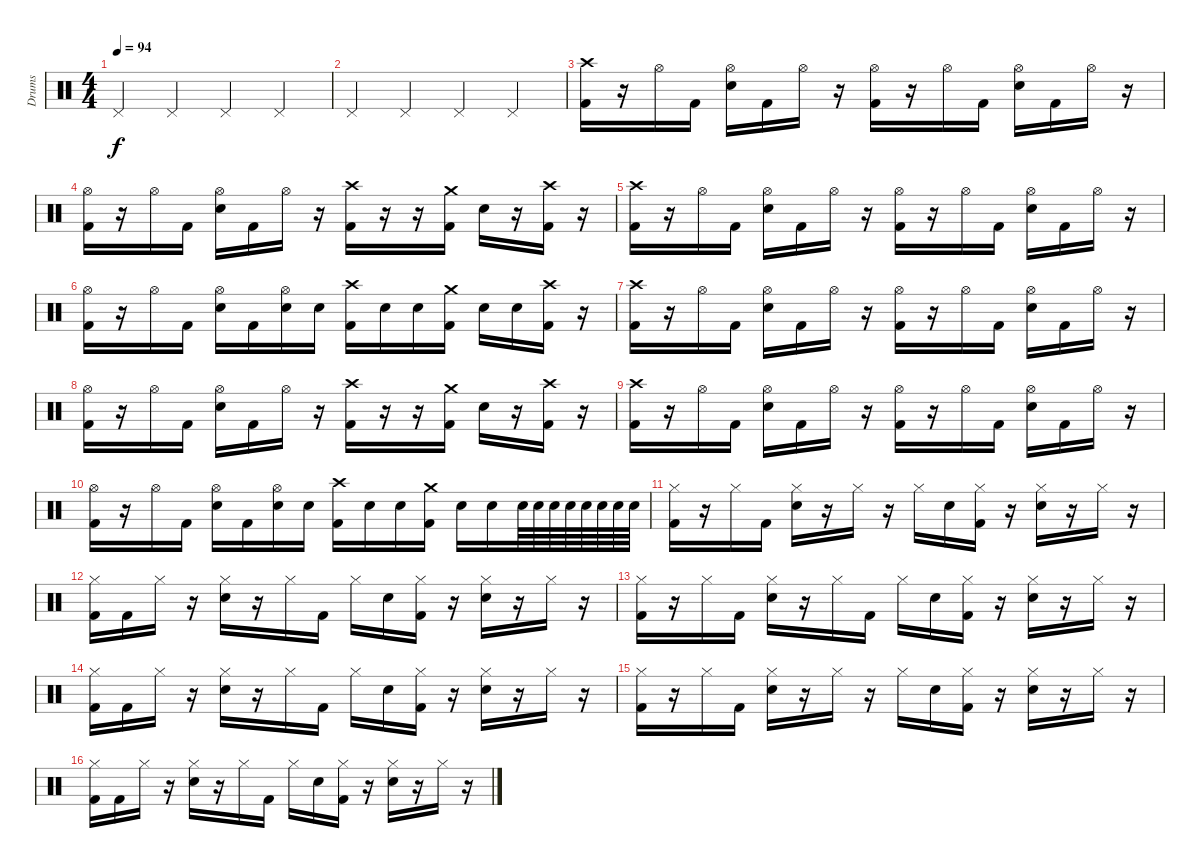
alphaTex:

\track ("Drums" "Drums") {instrument percussion}
\staff {score}
\articulation defaults
\ts (4 4)
\tempo 94
\clef neutral
\ks c "Pedal Hi-Hat (hit)".4{dy f} "Pedal Hi-Hat (hit)".4 "Pedal Hi-Hat (hit)".4 "Pedal Hi-Hat (hit)".4
|
"Pedal Hi-Hat (hit)".4 "Pedal Hi-Hat (hit)".4 "Pedal Hi-Hat (hit)".4 "Pedal Hi-Hat (hit)".4 |
("Crash high (hit)" "Kick (hit) 2").16 r.16 "Hi-Hat (open)".16 "Kick (hit) 2".16 ("Hi-Hat (open)" "Snare (hit) 2").16 "Kick (hit) 2".16 "Hi-Hat (open)".16 r.16 ("Hi-Hat (open)" "Kick (hit) 2").16 r.16 "Hi-Hat (open)".16 "Kick (hit) 2".16 ("Hi-Hat (open)" "Snare (hit) 2").16 "Kick (hit) 2".16 "Hi-Hat (open)".16 r.16 |
("Hi-Hat (open)" "Kick (hit) 2").16 r.16 "Hi-Hat (open)".16 "Kick (hit) 2".16 ("Hi-Hat (open)" "Snare (hit) 2").16 "Kick (hit) 2".16 "Hi-Hat (open)".16 r.16 ("Crash high (hit)" "Kick (hit) 2").16 r.16 r.16 ("Crash medium (hit)" "Kick (hit) 2").16 "Snare (hit) 2".16 r.16 ("Crash high (hit)" "Kick (hit) 2").16 r.16 |
("Crash high (hit)" "Kick (hit) 2").16 r.16 "Hi-Hat (open)".16 "Kick (hit) 2".16 ("Hi-Hat (open)" "Snare (hit) 2").16 "Kick (hit) 2".16 "Hi-Hat (open)".16 r.16 ("Hi-Hat (open)" "Kick (hit) 2").16 r.16 "Hi-Hat (open)".16 "Kick (hit) 2".16 ("Hi-Hat (open)" "Snare (hit) 2").16 "Kick (hit) 2".16 "Hi-Hat (open)".16 r.16 |
("Hi-Hat (open)" "Kick (hit) 2").16 r.16 "Hi-Hat (open)".16 "Kick (hit) 2".16 ("Hi-Hat (open)" "Snare (hit) 2").16 "Kick (hit) 2".16 ("Hi-Hat (open)" "Snare (hit) 2").16 "Snare (hit) 2".16 ("Crash high (hit)" "Kick (hit) 2").16 "Snare (hit) 2".16 "Snare (hit) 2".16 ("Crash medium (hit)" "Kick (hit) 2").16 "Snare (hit) 2".16 "Snare (hit) 2".16 ("Crash high (hit)" "Kick (hit) 2").16 r.16 |
("Crash high (hit)" "Kick (hit) 2").16 r.16 "Hi-Hat (open)".16 "Kick (hit) 2".16 ("Hi-Hat (open)" "Snare (hit) 2").16 "Kick (hit) 2".16 "Hi-Hat (open)".16 r.16 ("Hi-Hat (open)" "Kick (hit) 2").16 r.16 "Hi-Hat (open)".16 "Kick (hit) 2".16 ("Hi-Hat (open)" "Snare (hit) 2").16 "Kick (hit) 2".16 "Hi-Hat (open)".16 r.16 |
("Hi-Hat (open)" "Kick (hit) 2").16 r.16 "Hi-Hat (open)".16 "Kick (hit) 2".16 ("Hi-Hat (open)" "Snare (hit) 2").16 "Kick (hit) 2".16 "Hi-Hat (open)".16 r.16 ("Crash high (hit)" "Kick (hit) 2").16 r.16 r.16 ("Crash medium (hit)" "Kick (hit) 2").16 "Snare (hit) 2".16 r.16 ("Crash high (hit)" "Kick (hit) 2").16 r.16 |
("Crash high (hit)" "Kick (hit) 2").16 r.16 "Hi-Hat (open)".16 "Kick (hit) 2".16 ("Hi-Hat (open)" "Snare (hit) 2").16 "Kick (hit) 2".16 "Hi-Hat (open)".16 r.16 ("Hi-Hat (open)" "Kick (hit) 2").16 r.16 "Hi-Hat (open)".16 "Kick (hit) 2".16 ("Hi-Hat (open)" "Snare (hit) 2").16 "Kick (hit) 2".16 "Hi-Hat (open)".16 r.16 |
("Hi-Hat (open)" "Kick (hit) 2").16 r.16 "Hi-Hat (open)".16 "Kick (hit) 2".16 ("Hi-Hat (open)" "Snare (hit) 2").16 "Kick (hit) 2".16 ("Hi-Hat (open)" "Snare (hit) 2").16 "Snare (hit) 2".16 ("Crash high (hit)" "Kick (hit) 2").16 "Snare (hit) 2".16 "Snare (hit) 2".16 ("Crash medium (hit)" "Kick (hit) 2").16 "Snare (hit) 2".16 "Snare (hit) 2".16 "Snare (hit) 2".64 "Snare (hit) 2".64 "Snare (hit) 2".64 "Snare (hit) 2".64 "Snare (hit) 2".64 "Snare (hit) 2".64 "Snare (hit) 2".64 "Snare (hit) 2".64 |
("Hi-Hat (closed)" "Kick (hit) 2").16 r.16 "Hi-Hat (closed)".16 "Kick (hit) 2".16 ("Hi-Hat (closed)" "Snare (hit) 2").16 r.16 "Hi-Hat (closed)".16 r.16 "Hi-Hat (closed)".16 "Snare (hit) 2".16 ("Hi-Hat (closed)" "Kick (hit) 2").16 r.16 ("Hi-Hat (closed)" "Snare (hit) 2").16 r.16 "Hi-Hat (closed)".16 r.16 |
("Hi-Hat (closed)" "Kick (hit) 2").16 "Kick (hit) 2".16 "Hi-Hat (closed)".16 r.16 ("Hi-Hat (closed)" "Snare (hit) 2").16 r.16 "Hi-Hat (closed)".16 "Kick (hit) 2".16 "Hi-Hat (closed)".16 "Snare (hit) 2".16 ("Hi-Hat (closed)" "Kick (hit) 2").16 r.16 ("Hi-Hat (closed)" "Snare (hit) 2").16 r.16 "Hi-Hat (closed)".16 r.16 |
("Hi-Hat (closed)" "Kick (hit) 2").16 r.16 "Hi-Hat (closed)".16 "Kick (hit) 2".16 ("Hi-Hat (closed)" "Snare (hit) 2").16 r.16 "Hi-Hat (closed)".16 "Kick (hit) 2".16 "Hi-Hat (closed)".16 "Snare (hit) 2".16 ("Hi-Hat (closed)" "Kick (hit) 2").16 r.16 ("Hi-Hat (closed)" "Snare (hit) 2").16 r.16 "Hi-Hat (closed)".16 r.16 |
("Hi-Hat (closed)" "Kick (hit) 2").16 "Kick (hit) 2".16 "Hi-Hat (closed)".16 r.16 ("Hi-Hat (closed)" "Snare (hit) 2").16 r.16 "Hi-Hat (closed)".16 "Kick (hit) 2".16 "Hi-Hat (closed)".16 "Snare (hit) 2".16 ("Hi-Hat (closed)" "Kick (hit) 2").16 r.16 ("Hi-Hat (closed)" "Snare (hit) 2").16 r.16 "Hi-Hat (closed)".16 r.16 |
("Hi-Hat (closed)" "Kick (hit) 2").16 r.16 "Hi-Hat (closed)".16 "Kick (hit) 2".16 ("Hi-Hat (closed)" "Snare (hit) 2").16 r.16 "Hi-Hat (closed)".16 r.16 "Hi-Hat (closed)".16 "Snare (hit) 2".16 ("Hi-Hat (closed)" "Kick (hit) 2").16 r.16 ("Hi-Hat (closed)" "Snare (hit) 2").16 r.16 "Hi-Hat (closed)".16 r.16 |
("Hi-Hat (closed)" "Kick (hit) 2").16 "Kick (hit) 2".16 "Hi-Hat (closed)".16 r.16 ("Hi-Hat (closed)" "Snare (hit) 2").16 r.16 "Hi-Hat (closed)".16 "Kick (hit) 2".16 "Hi-Hat (closed)".16 "Snare (hit) 2".16 ("Hi-Hat (closed)" "Kick (hit) 2").16 r.16 ("Hi-Hat (closed)" "Snare (hit) 2").16 r.16 "Hi-Hat (closed)".16 r.16
